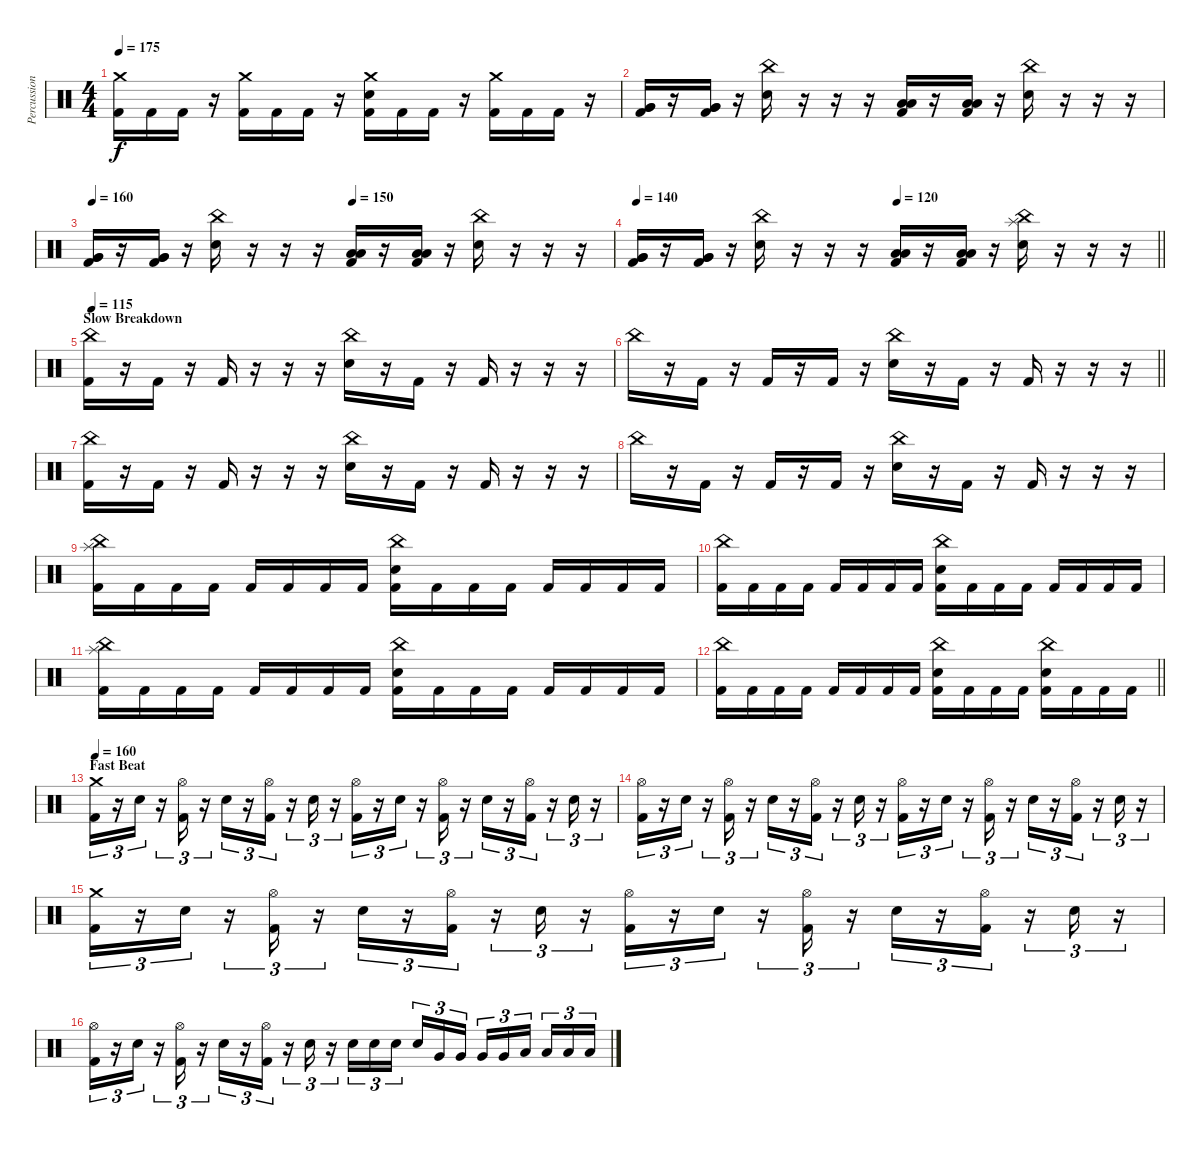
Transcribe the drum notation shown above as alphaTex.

\track ("Percussion" "Percussion") {instrument percussion}
\staff {score}
\articulation defaults
\ts (4 4)
\tempo 175
\clef neutral
\ks c
("Crash medium (hit)" "Kick (hit) 2").16{dy f} "Kick (hit) 2".16 "Kick (hit) 2".16 r.16 ("Crash medium (hit)" "Kick (hit) 2").16 "Kick (hit) 2".16 "Kick (hit) 2".16 r.16 ("Crash medium (hit)" "Electric Snare (hit)" "Kick (hit) 2").16 "Kick (hit) 2".16 "Kick (hit) 2".16 r.16 ("Crash medium (hit)" "Kick (hit) 2").16 "Kick (hit) 2".16 "Kick (hit) 2".16 r.16 |
("Very Low Tom (hit)" "Very Low Tom (hit)" "Kick (hit) 2").16 r.16 ("Very Low Tom (hit)" "Very Low Tom (hit)" "Kick (hit) 2").16 r.16 ("China (hit)" "Electric Snare (hit)").16 r.16 r.16 r.16 ("Low Floor Tom (hit)" "Low Floor Tom (hit)" "Kick (hit) 2").16 r.16 ("Low Floor Tom (hit)" "Low Floor Tom (hit)" "Kick (hit) 2").16 r.16 ("China (hit)" "Electric Snare (hit)").16 r.16 r.16 r.16 |
\tempo 160
\tempo (150 0.5)
("Very Low Tom (hit)" "Very Low Tom (hit)" "Kick (hit) 2").16 r.16 ("Very Low Tom (hit)" "Very Low Tom (hit)" "Kick (hit) 2").16 r.16 ("China (hit)" "Electric Snare (hit)").16 r.16 r.16 r.16 ("Low Floor Tom (hit)" "Low Floor Tom (hit)" "Kick (hit) 2").16 r.16 ("Low Floor Tom (hit)" "Low Floor Tom (hit)" "Kick (hit) 2").16 r.16 ("China (hit)" "Electric Snare (hit)").16 r.16 r.16 r.16 |
\tempo 140
\tempo (120 0.5)
\barLineRight lightlight
("Very Low Tom (hit)" "Very Low Tom (hit)" "Kick (hit) 2").16 r.16 ("Very Low Tom (hit)" "Very Low Tom (hit)" "Kick (hit) 2").16 r.16 ("China (hit)" "Electric Snare (hit)").16 r.16 r.16 r.16 ("Low Floor Tom (hit)" "Low Floor Tom (hit)" "Kick (hit) 2").16 r.16 ("Low Floor Tom (hit)" "Low Floor Tom (hit)" "Kick (hit) 2").16 r.16 ("Splash (hit)" "China (hit)" "Electric Snare (hit)").16 r.16 r.16 r.16 |
\section ("" "Slow Breakdown")
\tempo 115
("China (hit)" "Kick (hit) 2").16 r.16 "Kick (hit) 2".16 r.16 "Kick (hit) 2".16 r.16 r.16 r.16 ("China (hit)" "Electric Snare (hit)").16 r.16 "Kick (hit) 2".16 r.16 "Kick (hit) 2".16 r.16 r.16 r.16 |
\barLineRight lightlight "China (hit)".16
r.16 "Kick (hit) 2".16 r.16 "Kick (hit) 2".16 r.16 "Kick (hit) 2".16 r.16 ("China (hit)" "Electric Snare (hit)").16 r.16 "Kick (hit) 2".16 r.16 "Kick (hit) 2".16 r.16 r.16 r.16 |
("China (hit)" "Kick (hit) 2").16 r.16 "Kick (hit) 2".16 r.16 "Kick (hit) 2".16 r.16 r.16 r.16 ("China (hit)" "Electric Snare (hit)").16 r.16 "Kick (hit) 2".16 r.16 "Kick (hit) 2".16 r.16 r.16 r.16 |
"China (hit)".16 r.16 "Kick (hit) 2".16 r.16 "Kick (hit) 2".16 r.16 "Kick (hit) 2".16 r.16 ("China (hit)" "Electric Snare (hit)").16 r.16 "Kick (hit) 2".16 r.16 "Kick (hit) 2".16 r.16 r.16 r.16 |
("Splash (hit)" "China (hit)" "Kick (hit) 2").16 "Kick (hit) 2".16 "Kick (hit) 2".16 "Kick (hit) 2".16 "Kick (hit) 2".16 "Kick (hit) 2".16 "Kick (hit) 2".16 "Kick (hit) 2".16 ("China (hit)" "Electric Snare (hit)" "Kick (hit) 2").16 "Kick (hit) 2".16 "Kick (hit) 2".16 "Kick (hit) 2".16 "Kick (hit) 2".16 "Kick (hit) 2".16 "Kick (hit) 2".16 "Kick (hit) 2".16 |
("China (hit)" "Kick (hit) 2").16 "Kick (hit) 2".16 "Kick (hit) 2".16 "Kick (hit) 2".16 "Kick (hit) 2".16 "Kick (hit) 2".16 "Kick (hit) 2".16 "Kick (hit) 2".16 ("China (hit)" "Electric Snare (hit)" "Kick (hit) 2").16 "Kick (hit) 2".16 "Kick (hit) 2".16 "Kick (hit) 2".16 "Kick (hit) 2".16 "Kick (hit) 2".16 "Kick (hit) 2".16 "Kick (hit) 2".16 |
("Splash (hit)" "China (hit)" "Kick (hit) 2").16 "Kick (hit) 2".16 "Kick (hit) 2".16 "Kick (hit) 2".16 "Kick (hit) 2".16 "Kick (hit) 2".16 "Kick (hit) 2".16 "Kick (hit) 2".16 ("China (hit)" "Electric Snare (hit)" "Kick (hit) 2").16 "Kick (hit) 2".16 "Kick (hit) 2".16 "Kick (hit) 2".16 "Kick (hit) 2".16 "Kick (hit) 2".16 "Kick (hit) 2".16 "Kick (hit) 2".16 |
\barLineRight lightlight
("China (hit)" "Kick (hit) 2").16 "Kick (hit) 2".16 "Kick (hit) 2".16 "Kick (hit) 2".16 "Kick (hit) 2".16 "Kick (hit) 2".16 "Kick (hit) 2".16 "Kick (hit) 2".16 ("China (hit)" "Electric Snare (hit)" "Kick (hit) 2").16 "Kick (hit) 2".16 "Kick (hit) 2".16 "Kick (hit) 2".16 ("China (hit)" "Electric Snare (hit)" "Kick (hit) 2").16 "Kick (hit) 2".16 "Kick (hit) 2".16 "Kick (hit) 2".16 |
\section ("" "Fast Beat")
\tempo 160
("Crash medium (hit)" "Kick (hit) 2").16{tu (3 2)} r.16{tu (3 2)} "Electric Snare (hit)".16{tu (3 2)} r.16{tu (3 2)} ("Hi-Hat (open)" "Kick (hit) 2").16{tu (3 2)} r.16{tu (3 2)} "Electric Snare (hit)".16{tu (3 2)} r.16{tu (3 2)} ("Hi-Hat (open)" "Kick (hit) 2").16{tu (3 2)} r.16{tu (3 2)} "Electric Snare (hit)".16{tu (3 2)} r.16{tu (3 2)} ("Hi-Hat (open)" "Kick (hit) 2").16{tu (3 2)} r.16{tu (3 2)} "Electric Snare (hit)".16{tu (3 2)} r.16{tu (3 2)} ("Hi-Hat (open)" "Kick (hit) 2").16{tu (3 2)} r.16{tu (3 2)} "Electric Snare (hit)".16{tu (3 2)} r.16{tu (3 2)} ("Hi-Hat (open)" "Kick (hit) 2").16{tu (3 2)} r.16{tu (3 2)} "Electric Snare (hit)".16{tu (3 2)} r.16{tu (3 2)} |
("Hi-Hat (open)" "Kick (hit) 2").16{tu (3 2)} r.16{tu (3 2)} "Electric Snare (hit)".16{tu (3 2)} r.16{tu (3 2)} ("Hi-Hat (open)" "Kick (hit) 2").16{tu (3 2)} r.16{tu (3 2)} "Electric Snare (hit)".16{tu (3 2)} r.16{tu (3 2)} ("Hi-Hat (open)" "Kick (hit) 2").16{tu (3 2)} r.16{tu (3 2)} "Electric Snare (hit)".16{tu (3 2)} r.16{tu (3 2)} ("Hi-Hat (open)" "Kick (hit) 2").16{tu (3 2)} r.16{tu (3 2)} "Electric Snare (hit)".16{tu (3 2)} r.16{tu (3 2)} ("Hi-Hat (open)" "Kick (hit) 2").16{tu (3 2)} r.16{tu (3 2)} "Electric Snare (hit)".16{tu (3 2)} r.16{tu (3 2)} ("Hi-Hat (open)" "Kick (hit) 2").16{tu (3 2)} r.16{tu (3 2)} "Electric Snare (hit)".16{tu (3 2)} r.16{tu (3 2)} |
("Crash medium (hit)" "Kick (hit) 2").16{tu (3 2)} r.16{tu (3 2)} "Electric Snare (hit)".16{tu (3 2)} r.16{tu (3 2)} ("Hi-Hat (open)" "Kick (hit) 2").16{tu (3 2)} r.16{tu (3 2)} "Electric Snare (hit)".16{tu (3 2)} r.16{tu (3 2)} ("Hi-Hat (open)" "Kick (hit) 2").16{tu (3 2)} r.16{tu (3 2)} "Electric Snare (hit)".16{tu (3 2)} r.16{tu (3 2)} ("Hi-Hat (open)" "Kick (hit) 2").16{tu (3 2)} r.16{tu (3 2)} "Electric Snare (hit)".16{tu (3 2)} r.16{tu (3 2)} ("Hi-Hat (open)" "Kick (hit) 2").16{tu (3 2)} r.16{tu (3 2)} "Electric Snare (hit)".16{tu (3 2)} r.16{tu (3 2)} ("Hi-Hat (open)" "Kick (hit) 2").16{tu (3 2)} r.16{tu (3 2)} "Electric Snare (hit)".16{tu (3 2)} r.16{tu (3 2)} |
("Hi-Hat (open)" "Kick (hit) 2").16{tu (3 2)} r.16{tu (3 2)} "Electric Snare (hit)".16{tu (3 2)} r.16{tu (3 2)} ("Hi-Hat (open)" "Kick (hit) 2").16{tu (3 2)} r.16{tu (3 2)} "Electric Snare (hit)".16{tu (3 2)} r.16{tu (3 2)} ("Hi-Hat (open)" "Kick (hit) 2").16{tu (3 2)} r.16{tu (3 2)} "Electric Snare (hit)".16{tu (3 2)} r.16{tu (3 2)} "Electric Snare (hit)".16{tu (3 2)} "Electric Snare (hit)".16{tu (3 2)} "Electric Snare (hit)".16{tu (3 2)} "Electric Snare (hit)".16{tu (3 2)} "Very Low Tom (hit)".16{tu (3 2)} "Very Low Tom (hit)".16{tu (3 2)} "Very Low Tom (hit)".16{tu (3 2)} "Very Low Tom (hit)".16{tu (3 2)} "Low Floor Tom (hit)".16{tu (3 2)} "Low Floor Tom (hit)".16{tu (3 2)} "Low Floor Tom (hit)".16{tu (3 2)} "Low Floor Tom (hit)".16{tu (3 2)}
